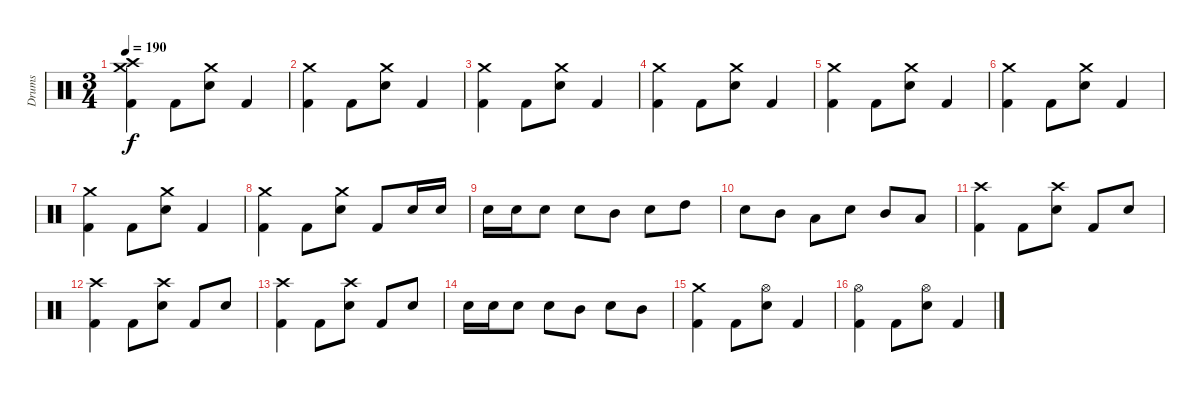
\track ("Drums" "Drums") {instrument percussion}
\staff {score}
\articulation defaults
\ts (3 4)
\tempo 190
\clef neutral
\ks c
("Crash medium (hit)" "Crash high (hit)" "Kick (hit) 2").4{dy f} "Kick (hit) 2".8 ("Crash medium (hit)" "Electric Snare (hit)").8 "Kick (hit) 2".4 |
("Crash medium (hit)" "Kick (hit) 2").4 "Kick (hit) 2".8 ("Crash medium (hit)" "Electric Snare (hit)").8 "Kick (hit) 2".4 |
("Crash medium (hit)" "Kick (hit) 2").4 "Kick (hit) 2".8 ("Crash medium (hit)" "Electric Snare (hit)").8 "Kick (hit) 2".4 |
("Crash medium (hit)" "Kick (hit) 2").4 "Kick (hit) 2".8 ("Crash medium (hit)" "Electric Snare (hit)").8 "Kick (hit) 2".4 |
("Crash medium (hit)" "Kick (hit) 2").4 "Kick (hit) 2".8 ("Crash medium (hit)" "Electric Snare (hit)").8 "Kick (hit) 2".4 |
("Crash medium (hit)" "Kick (hit) 2").4 "Kick (hit) 2".8 ("Crash medium (hit)" "Electric Snare (hit)").8 "Kick (hit) 2".4 |
("Crash medium (hit)" "Kick (hit) 2").4 "Kick (hit) 2".8 ("Crash medium (hit)" "Electric Snare (hit)").8 "Kick (hit) 2".4 |
("Crash medium (hit)" "Kick (hit) 2").4 "Kick (hit) 2".8 ("Crash medium (hit)" "Electric Snare (hit)").8 "Kick (hit) 2".8 "Electric Snare (hit)".16 "Electric Snare (hit)".16 |
"Electric Snare (hit)".16 "Electric Snare (hit)".16 "Electric Snare (hit)".8 "Electric Snare (hit)".8 "Mid Tom (hit)".8 "Electric Snare (hit)".8 "High Tom (hit)".8 |
"Electric Snare (hit)".8 "Mid Tom (hit)".8 "Low Tom (hit)".8 "Electric Snare (hit)".8 "Mid Tom (hit)".8 "Low Tom (hit)".8 |
("Crash high (hit)" "Kick (hit) 2").4 "Kick (hit) 2".8 ("Crash high (hit)" "Electric Snare (hit)").8 "Kick (hit) 2".8 "Electric Snare (hit)".8 |
("Crash high (hit)" "Kick (hit) 2").4 "Kick (hit) 2".8 ("Crash high (hit)" "Electric Snare (hit)").8 "Kick (hit) 2".8 "Electric Snare (hit)".8 |
("Crash high (hit)" "Kick (hit) 2").4 "Kick (hit) 2".8 ("Crash high (hit)" "Electric Snare (hit)").8 "Kick (hit) 2".8 "Electric Snare (hit)".8 |
"Electric Snare (hit)".16 "Electric Snare (hit)".16 "Electric Snare (hit)".8 "Electric Snare (hit)".8 "Mid Tom (hit)".8 "Electric Snare (hit)".8 "Mid Tom (hit)".8 |
("Crash medium (hit)" "Kick (hit) 2").4 "Kick (hit) 2".8 ("Hi-Hat (open)" "Electric Snare (hit)").8 "Kick (hit) 2".4 |
("Hi-Hat (open)" "Kick (hit) 2").4 "Kick (hit) 2".8 ("Hi-Hat (open)" "Electric Snare (hit)").8 "Kick (hit) 2".4
